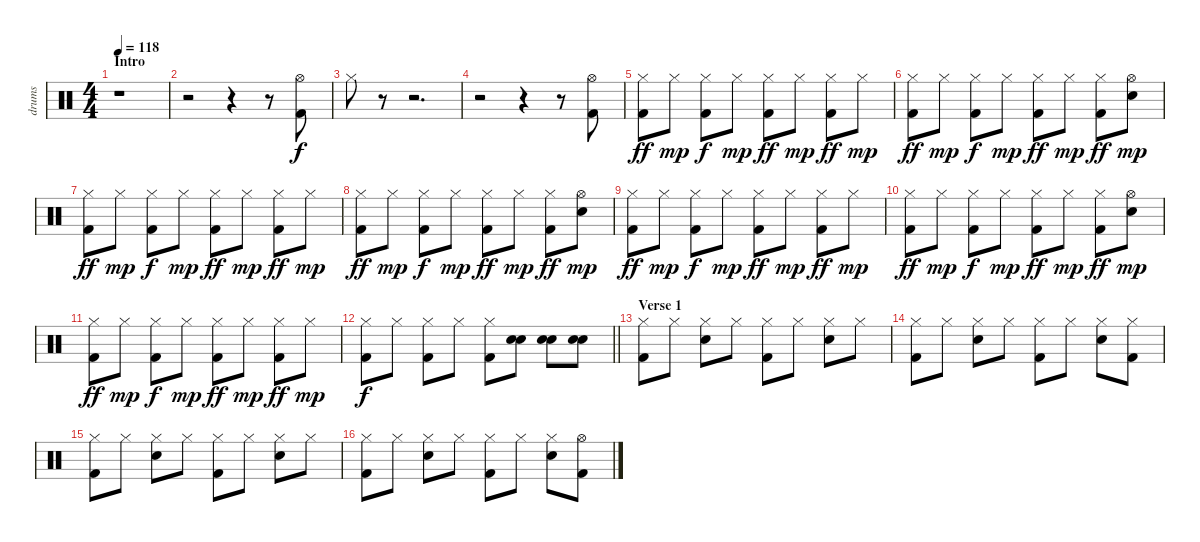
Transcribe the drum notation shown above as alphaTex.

\track ("drums" "drums") {instrument percussion}
\staff {score}
\articulation defaults
\ts (4 4)
\section ("" "Intro")
\tempo 118
\clef neutral
\ks c
r.1{dy f} |
r.2 r.4 r.8 ("Hi-Hat (open)" "Kick (hit) 2").8 |
"Hi-Hat (closed)".8 r.8 r.2{d} |
r.2 r.4 r.8 ("Hi-Hat (open)" "Kick (hit) 2").8 |
("Hi-Hat (closed)" "Kick (hit) 2").8{dy ff} "Hi-Hat (closed)".8{dy mp} ("Hi-Hat (closed)" "Kick (hit) 2").8{dy f} "Hi-Hat (closed)".8{dy mp} ("Hi-Hat (closed)" "Kick (hit) 2").8{dy ff} "Hi-Hat (closed)".8{dy mp} ("Hi-Hat (closed)" "Kick (hit) 2").8{dy ff} "Hi-Hat (closed)".8{dy mp} |
("Hi-Hat (closed)" "Kick (hit) 2").8{dy ff} "Hi-Hat (closed)".8{dy mp} ("Hi-Hat (closed)" "Kick (hit) 2").8{dy f} "Hi-Hat (closed)".8{dy mp} ("Hi-Hat (closed)" "Kick (hit) 2").8{dy ff} "Hi-Hat (closed)".8{dy mp} ("Hi-Hat (closed)" "Kick (hit) 2").8{dy ff} ("Hi-Hat (open)" "Electric Snare (hit)").8{dy mp} |
("Hi-Hat (closed)" "Kick (hit) 2").8{dy ff} "Hi-Hat (closed)".8{dy mp} ("Hi-Hat (closed)" "Kick (hit) 2").8{dy f} "Hi-Hat (closed)".8{dy mp} ("Hi-Hat (closed)" "Kick (hit) 2").8{dy ff} "Hi-Hat (closed)".8{dy mp} ("Hi-Hat (closed)" "Kick (hit) 2").8{dy ff} "Hi-Hat (closed)".8{dy mp} |
("Hi-Hat (closed)" "Kick (hit) 2").8{dy ff} "Hi-Hat (closed)".8{dy mp} ("Hi-Hat (closed)" "Kick (hit) 2").8{dy f} "Hi-Hat (closed)".8{dy mp} ("Hi-Hat (closed)" "Kick (hit) 2").8{dy ff} "Hi-Hat (closed)".8{dy mp} ("Hi-Hat (closed)" "Kick (hit) 2").8{dy ff} ("Hi-Hat (open)" "Electric Snare (hit)").8{dy mp} |
("Hi-Hat (closed)" "Kick (hit) 2").8{dy ff} "Hi-Hat (closed)".8{dy mp} ("Hi-Hat (closed)" "Kick (hit) 2").8{dy f} "Hi-Hat (closed)".8{dy mp} ("Hi-Hat (closed)" "Kick (hit) 2").8{dy ff} "Hi-Hat (closed)".8{dy mp} ("Hi-Hat (closed)" "Kick (hit) 2").8{dy ff} "Hi-Hat (closed)".8{dy mp} |
("Hi-Hat (closed)" "Kick (hit) 2").8{dy ff} "Hi-Hat (closed)".8{dy mp} ("Hi-Hat (closed)" "Kick (hit) 2").8{dy f} "Hi-Hat (closed)".8{dy mp} ("Hi-Hat (closed)" "Kick (hit) 2").8{dy ff} "Hi-Hat (closed)".8{dy mp} ("Hi-Hat (closed)" "Kick (hit) 2").8{dy ff} ("Hi-Hat (open)" "Electric Snare (hit)").8{dy mp} |
("Hi-Hat (closed)" "Kick (hit) 2").8{dy ff} "Hi-Hat (closed)".8{dy mp} ("Hi-Hat (closed)" "Kick (hit) 2").8{dy f} "Hi-Hat (closed)".8{dy mp} ("Hi-Hat (closed)" "Kick (hit) 2").8{dy ff} "Hi-Hat (closed)".8{dy mp} ("Hi-Hat (closed)" "Kick (hit) 2").8{dy ff} "Hi-Hat (closed)".8{dy mp} |
\barLineRight lightlight
("Hi-Hat (closed)" "Kick (hit) 2").8{dy f} "Hi-Hat (closed)".8 ("Hi-Hat (closed)" "Kick (hit) 2").8 "Hi-Hat (closed)".8 ("Hi-Hat (closed)" "Kick (hit) 2").8 ("Hand Clap (hit)" "Electric Snare (hit)").8 ("Hand Clap (hit)" "Electric Snare (hit)").8 ("Hand Clap (hit)" "Electric Snare (hit)").8 |
\section ("" "Verse 1")
("Hi-Hat (closed)" "Kick (hit) 2").8 "Hi-Hat (closed)".8 ("Hi-Hat (closed)" "Electric Snare (hit)").8 "Hi-Hat (closed)".8 ("Hi-Hat (closed)" "Kick (hit) 2").8 "Hi-Hat (closed)".8 ("Hi-Hat (closed)" "Electric Snare (hit)").8 "Hi-Hat (closed)".8 |
("Hi-Hat (closed)" "Kick (hit) 2").8 "Hi-Hat (closed)".8 ("Hi-Hat (closed)" "Electric Snare (hit)").8 "Hi-Hat (closed)".8 ("Hi-Hat (closed)" "Kick (hit) 2").8 "Hi-Hat (closed)".8 ("Hi-Hat (closed)" "Electric Snare (hit)").8 ("Hi-Hat (closed)" "Kick (hit) 2").8 |
("Hi-Hat (closed)" "Kick (hit) 2").8 "Hi-Hat (closed)".8 ("Hi-Hat (closed)" "Electric Snare (hit)").8 "Hi-Hat (closed)".8 ("Hi-Hat (closed)" "Kick (hit) 2").8 "Hi-Hat (closed)".8 ("Hi-Hat (closed)" "Electric Snare (hit)").8 "Hi-Hat (closed)".8 |
("Hi-Hat (closed)" "Kick (hit) 2").8 "Hi-Hat (closed)".8 ("Hi-Hat (closed)" "Electric Snare (hit)").8 "Hi-Hat (closed)".8 ("Hi-Hat (closed)" "Kick (hit) 2").8 "Hi-Hat (closed)".8 ("Hi-Hat (closed)" "Electric Snare (hit)").8 ("Hi-Hat (open)" "Kick (hit) 2").8
